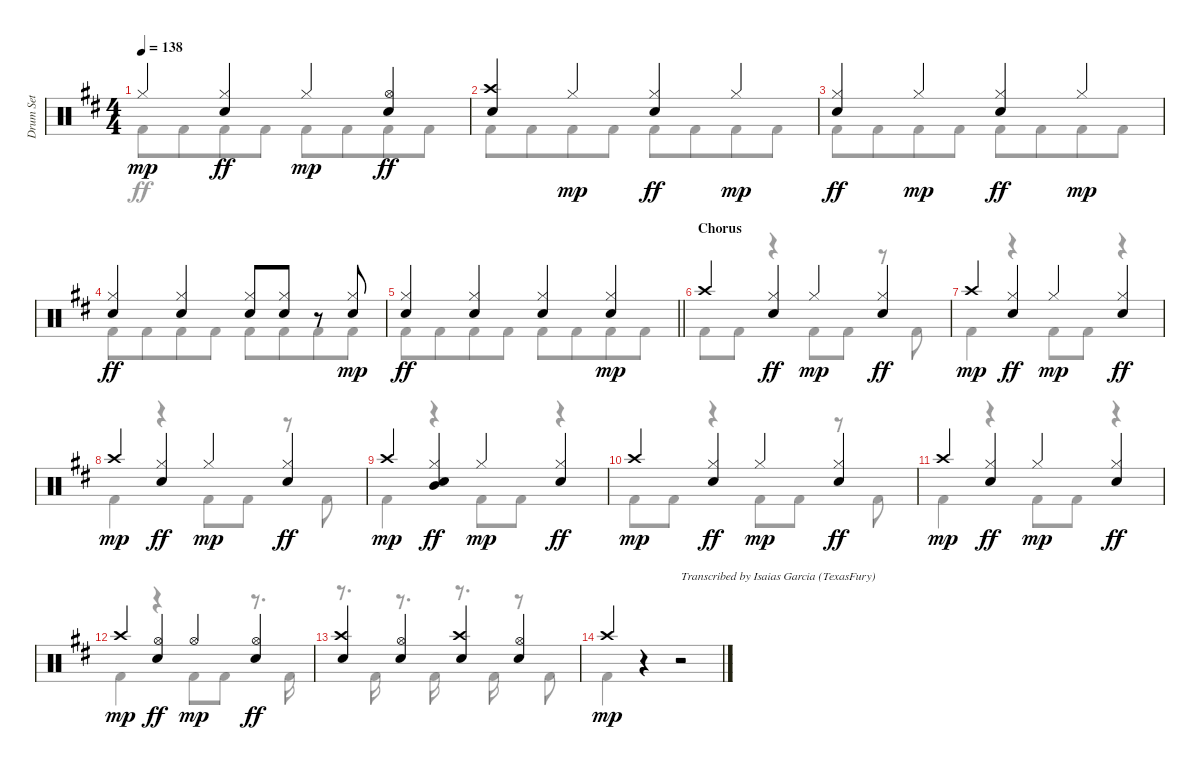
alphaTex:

\track ("Drum Set" "Drum Set") {instrument percussion}
\staff {score}
\articulation defaults
\voice
\ts (4 4)
\tempo 138
\clef neutral
\ks d "Hi-Hat (closed)".4{dy mp}
("Hi-Hat (closed)" "Electric Snare (hit)").4{dy ff} "Hi-Hat (closed)".4{dy mp} ("Hi-Hat (open)" "Electric Snare (hit)").4{dy ff} |
("Crash high (hit)" "Electric Snare (hit)").4 "Hi-Hat (closed)".4{dy mp} ("Hi-Hat (closed)" "Electric Snare (hit)").4{dy ff} "Hi-Hat (closed)".4{dy mp} |
("Hi-Hat (closed)" "Electric Snare (hit)").4{dy ff} "Hi-Hat (closed)".4{dy mp} ("Hi-Hat (closed)" "Electric Snare (hit)").4{dy ff} "Hi-Hat (closed)".4{dy mp} |
("Hi-Hat (closed)" "Electric Snare (hit)").4{dy ff} ("Hi-Hat (closed)" "Electric Snare (hit)").4 ("Hi-Hat (closed)" "Electric Snare (hit)").8 ("Hi-Hat (closed)" "Electric Snare (hit)").8 r.8 ("Electric Snare (hit)" "Hi-Hat (closed)").8{dy mp} |
\barLineRight lightlight
("Hi-Hat (closed)" "Electric Snare (hit)").4{dy ff} ("Hi-Hat (closed)" "Electric Snare (hit)").4 ("Hi-Hat (closed)" "Electric Snare (hit)").4 ("Electric Snare (hit)" "Hi-Hat (closed)").4{dy mp} |
\section ("" "Chorus")
"Crash high (hit)".4 ("Hi-Hat (closed)" "Electric Snare (hit)").4{dy ff} "Hi-Hat (closed)".4{dy mp} ("Hi-Hat (closed)" "Electric Snare (hit)").4{dy ff} |
"Crash high (hit)".4{dy mp} ("Hi-Hat (closed)" "Electric Snare (hit)").4{dy ff} "Hi-Hat (closed)".4{dy mp} ("Hi-Hat (closed)" "Electric Snare (hit)").4{dy ff} |
"Crash high (hit)".4{dy mp} ("Hi-Hat (closed)" "Electric Snare (hit)").4{dy ff} "Hi-Hat (closed)".4{dy mp} ("Hi-Hat (closed)" "Electric Snare (hit)").4{dy ff} |
"Crash high (hit)".4{dy mp} ("Hi-Hat (closed)" "Electric Snare (hit)" "Mid Tom (hit)").4{dy ff} "Hi-Hat (closed)".4{dy mp} ("Hi-Hat (closed)" "Electric Snare (hit)").4{dy ff} |
"Crash high (hit)".4{dy mp} ("Hi-Hat (closed)" "Electric Snare (hit)").4{dy ff} "Hi-Hat (closed)".4{dy mp} ("Hi-Hat (closed)" "Electric Snare (hit)").4{dy ff} |
"Crash high (hit)".4{dy mp} ("Hi-Hat (closed)" "Electric Snare (hit)").4{dy ff} "Hi-Hat (closed)".4{dy mp} ("Hi-Hat (closed)" "Electric Snare (hit)").4{dy ff} |
"Crash high (hit)".4{dy mp} ("Hi-Hat (open)" "Electric Snare (hit)").4{dy ff} "Hi-Hat (open)".4{dy mp} ("Hi-Hat (open)" "Electric Snare (hit)").4{dy ff} |
("Crash high (hit)" "Electric Snare (hit)").4 ("Hi-Hat (open)" "Electric Snare (hit)").4 ("Crash high (hit)" "Electric Snare (hit)").4 ("Hi-Hat (open)" "Electric Snare (hit)").4 |
"Crash high (hit)".4{dy mp volume 0} r.4 r.2{txt "Transcribed by Isaias Garcia (TexasFury)"}
\voice
\clef neutral
\ottava regular
\simile none
\ks d "Kick (hit) 2".8{dy ff} "Kick (hit) 2".8{beam merge} "Kick (hit) 2".8 "Kick (hit) 2".8 "Kick (hit) 2".8 "Kick (hit) 2".8{beam merge} "Kick (hit) 2".8 "Kick (hit) 2".8
|
"Kick (hit) 2".8 "Kick (hit) 2".8{beam merge} "Kick (hit) 2".8 "Kick (hit) 2".8 "Kick (hit) 2".8 "Kick (hit) 2".8{beam merge} "Kick (hit) 2".8 "Kick (hit) 2".8 |
"Kick (hit) 2".8 "Kick (hit) 2".8{beam merge} "Kick (hit) 2".8 "Kick (hit) 2".8 "Kick (hit) 2".8 "Kick (hit) 2".8{beam merge} "Kick (hit) 2".8 "Kick (hit) 2".8 |
"Kick (hit) 2".8 "Kick (hit) 2".8{beam merge} "Kick (hit) 2".8 "Kick (hit) 2".8 "Kick (hit) 2".8 "Kick (hit) 2".8{beam merge} "Kick (hit) 2".8 "Kick (hit) 2".8 |
\barLineRight lightlight "Kick (hit) 2".8 "Kick (hit) 2".8{beam merge} "Kick (hit) 2".8 "Kick (hit) 2".8 "Kick (hit) 2".8 "Kick (hit) 2".8{beam merge} "Kick (hit) 2".8 "Kick (hit) 2".8
|
"Kick (hit) 2".8 "Kick (hit) 2".8 r.4 "Kick (hit) 2".8 "Kick (hit) 2".8 r.8 "Kick (hit) 2".8 |
"Kick (hit) 2".4 r.4 "Kick (hit) 2".8 "Kick (hit) 2".8 r.4 |
"Kick (hit) 2".4 r.4 "Kick (hit) 2".8 "Kick (hit) 2".8 r.8 "Kick (hit) 2".8 |
"Kick (hit) 2".4 r.4 "Kick (hit) 2".8 "Kick (hit) 2".8 r.4 |
"Kick (hit) 2".8 "Kick (hit) 2".8 r.4 "Kick (hit) 2".8 "Kick (hit) 2".8 r.8 "Kick (hit) 2".8 |
"Kick (hit) 2".4 r.4 "Kick (hit) 2".8 "Kick (hit) 2".8 r.4 |
"Kick (hit) 2".4 r.4 "Kick (hit) 2".8 "Kick (hit) 2".8 r.8{d} "Kick (hit) 2".16 |
r.8{d} "Kick (hit) 2".16 r.8{d} "Kick (hit) 2".16 r.8{d} "Kick (hit) 2".16 r.8 "Kick (hit) 2".8 |
"Kick (hit) 2".4 r.4 r.2
